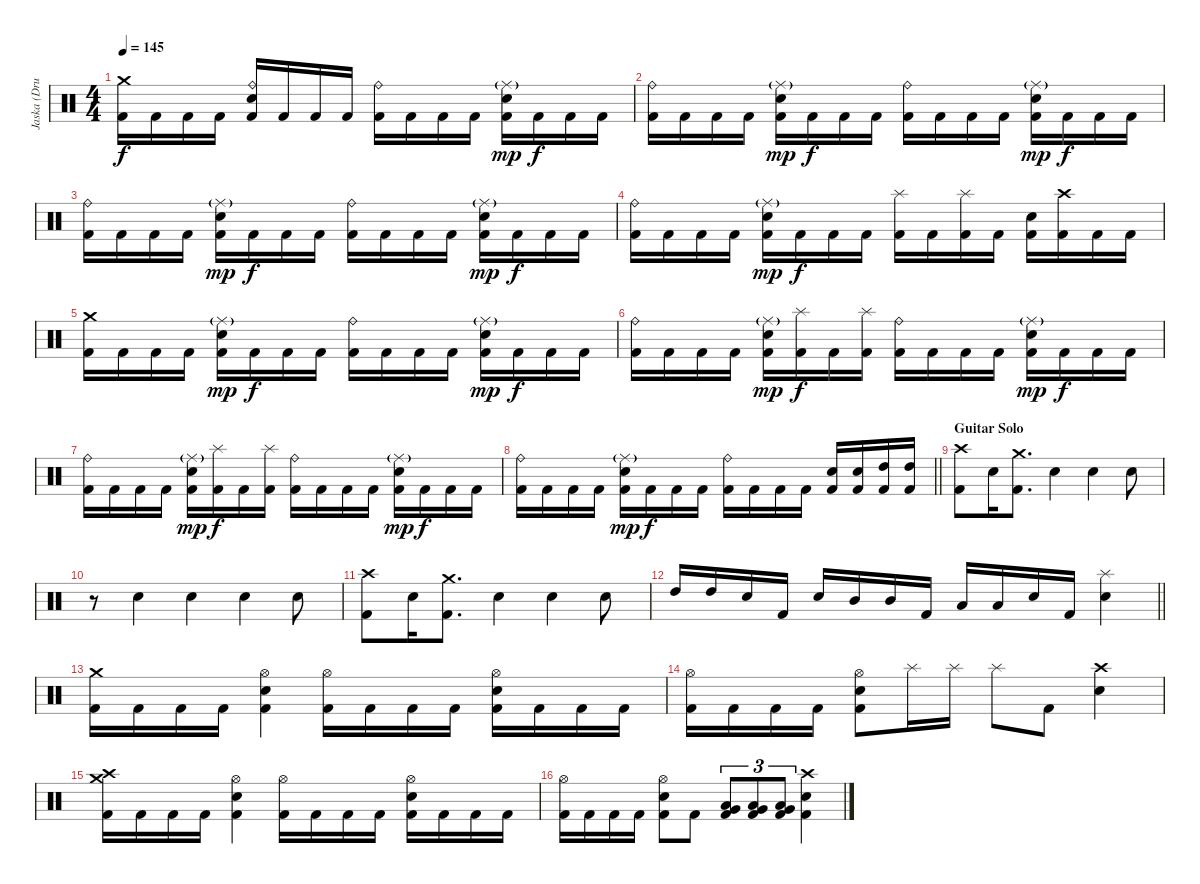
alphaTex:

\track ("Jaska (Drums)" "Jaska (Dru") {instrument percussion}
\staff {score}
\articulation defaults
\ts (4 4)
\tempo 145
\clef neutral
\ks c
("Crash medium (hit)" "Kick (hit) 2").16{dy f} "Kick (hit) 2".16 "Kick (hit) 2".16 "Kick (hit) 2".16 ("Ride (bell)" "Electric Snare (hit)" "Kick (hit) 2").16 "Kick (hit) 2".16 "Kick (hit) 2".16 "Kick (hit) 2".16 ("Ride (bell)" "Kick (hit) 2").16 "Kick (hit) 2".16 "Kick (hit) 2".16 "Kick (hit) 2".16 ("Ride (middle)"{g} "Electric Snare (hit)" "Kick (hit) 2").16{dy mp} "Kick (hit) 2".16{dy f} "Kick (hit) 2".16 "Kick (hit) 2".16 |
("Ride (bell)" "Kick (hit) 2").16 "Kick (hit) 2".16 "Kick (hit) 2".16 "Kick (hit) 2".16 ("Ride (middle)"{g} "Electric Snare (hit)" "Kick (hit) 2").16{dy mp} "Kick (hit) 2".16{dy f} "Kick (hit) 2".16 "Kick (hit) 2".16 ("Ride (bell)" "Kick (hit) 2").16 "Kick (hit) 2".16 "Kick (hit) 2".16 "Kick (hit) 2".16 ("Ride (middle)"{g} "Electric Snare (hit)" "Kick (hit) 2").16{dy mp} "Kick (hit) 2".16{dy f} "Kick (hit) 2".16 "Kick (hit) 2".16 |
("Ride (bell)" "Kick (hit) 2").16 "Kick (hit) 2".16 "Kick (hit) 2".16 "Kick (hit) 2".16 ("Ride (middle)"{g} "Electric Snare (hit)" "Kick (hit) 2").16{dy mp} "Kick (hit) 2".16{dy f} "Kick (hit) 2".16 "Kick (hit) 2".16 ("Ride (bell)" "Kick (hit) 2").16 "Kick (hit) 2".16 "Kick (hit) 2".16 "Kick (hit) 2".16 ("Ride (middle)"{g} "Electric Snare (hit)" "Kick (hit) 2").16{dy mp} "Kick (hit) 2".16{dy f} "Kick (hit) 2".16 "Kick (hit) 2".16 |
("Ride (bell)" "Kick (hit) 2").16 "Kick (hit) 2".16 "Kick (hit) 2".16 "Kick (hit) 2".16 ("Ride (middle)"{g} "Electric Snare (hit)" "Kick (hit) 2").16{dy mp} "Kick (hit) 2".16{dy f} "Kick (hit) 2".16 "Kick (hit) 2".16 ("Splash (hit)" "Kick (hit) 2").16 "Kick (hit) 2".16 ("Splash (hit)" "Kick (hit) 2").16 "Kick (hit) 2".16 ("Electric Snare (hit)" "Kick (hit) 2").16 ("Crash high (hit)" "Kick (hit) 2").16 "Kick (hit) 2".16 "Kick (hit) 2".16 |
("Crash medium (hit)" "Kick (hit) 2").16 "Kick (hit) 2".16 "Kick (hit) 2".16 "Kick (hit) 2".16 ("Ride (middle)"{g} "Electric Snare (hit)" "Kick (hit) 2").16{dy mp} "Kick (hit) 2".16{dy f} "Kick (hit) 2".16 "Kick (hit) 2".16 ("Ride (bell)" "Kick (hit) 2").16 "Kick (hit) 2".16 "Kick (hit) 2".16 "Kick (hit) 2".16 ("Ride (middle)"{g} "Electric Snare (hit)" "Kick (hit) 2").16{dy mp} "Kick (hit) 2".16{dy f} "Kick (hit) 2".16 "Kick (hit) 2".16 |
("Ride (bell)" "Kick (hit) 2").16 "Kick (hit) 2".16 "Kick (hit) 2".16 "Kick (hit) 2".16 ("Ride (middle)"{g} "Electric Snare (hit)" "Kick (hit) 2").16{dy mp} ("Splash (hit)" "Kick (hit) 2").16{dy f} "Kick (hit) 2".16 ("Splash (hit)" "Kick (hit) 2").16 ("Ride (bell)" "Kick (hit) 2").16 "Kick (hit) 2".16 "Kick (hit) 2".16 "Kick (hit) 2".16 ("Ride (middle)"{g} "Electric Snare (hit)" "Kick (hit) 2").16{dy mp} "Kick (hit) 2".16{dy f} "Kick (hit) 2".16 "Kick (hit) 2".16 |
("Ride (bell)" "Kick (hit) 2").16 "Kick (hit) 2".16 "Kick (hit) 2".16 "Kick (hit) 2".16 ("Ride (middle)"{g} "Electric Snare (hit)" "Kick (hit) 2").16{dy mp} ("Splash (hit)" "Kick (hit) 2").16{dy f} "Kick (hit) 2".16 ("Splash (hit)" "Kick (hit) 2").16 ("Ride (bell)" "Kick (hit) 2").16 "Kick (hit) 2".16 "Kick (hit) 2".16 "Kick (hit) 2".16 ("Ride (middle)"{g} "Electric Snare (hit)" "Kick (hit) 2").16{dy mp} "Kick (hit) 2".16{dy f} "Kick (hit) 2".16 "Kick (hit) 2".16 |
\barLineRight lightlight
("Ride (bell)" "Kick (hit) 2").16 "Kick (hit) 2".16 "Kick (hit) 2".16 "Kick (hit) 2".16 ("Ride (middle)"{g} "Electric Snare (hit)" "Kick (hit) 2").16{dy mp} "Kick (hit) 2".16{dy f} "Kick (hit) 2".16 "Kick (hit) 2".16 ("Ride (bell)" "Kick (hit) 2").16 "Kick (hit) 2".16 "Kick (hit) 2".16 "Kick (hit) 2".16 ("Electric Snare (hit)" "Kick (hit) 2").16 ("Electric Snare (hit)" "Kick (hit) 2").16 ("High Tom (hit)" "Kick (hit) 2").16 ("High Tom (hit)" "Kick (hit) 2").16 |
\section ("" "Guitar Solo")
("Crash high (hit)" "Kick (hit) 2").8 "Electric Snare (hit)".16 ("Crash medium (hit)" "Kick (hit) 2").8{d} "Electric Snare (hit)".4 "Electric Snare (hit)".4 "Electric Snare (hit)".8 |
r.8 "Electric Snare (hit)".4 "Electric Snare (hit)".4 "Electric Snare (hit)".4 "Electric Snare (hit)".8 |
("Crash high (hit)" "Kick (hit) 2").8 "Electric Snare (hit)".16 ("Crash medium (hit)" "Kick (hit) 2").8{d} "Electric Snare (hit)".4 "Electric Snare (hit)".4 "Electric Snare (hit)".8 |
\barLineRight lightlight "High Tom (hit)".16 "High Tom (hit)".16 "Electric Snare (hit)".16 "Kick (hit) 2".16 "Electric Snare (hit)".16 "Mid Tom (hit)".16 "Mid Tom (hit)".16 "Kick (hit) 2".16 "Low Tom (hit)".16 "Low Tom (hit)".16 "Electric Snare (hit)".16 "Kick (hit) 2".16
("Splash (hit)" "Electric Snare (hit)").4 |
("Crash medium (hit)" "Kick (hit) 2").16 "Kick (hit) 2".16 "Kick (hit) 2".16 "Kick (hit) 2".16 ("Hi-Hat (open)" "Electric Snare (hit)" "Kick (hit) 2").4 ("Hi-Hat (open)" "Kick (hit) 2").16 "Kick (hit) 2".16 "Kick (hit) 2".16 "Kick (hit) 2".16 ("Hi-Hat (open)" "Electric Snare (hit)" "Kick (hit) 2").16 "Kick (hit) 2".16 "Kick (hit) 2".16 "Kick (hit) 2".16 |
("Hi-Hat (open)" "Kick (hit) 2").16 "Kick (hit) 2".16 "Kick (hit) 2".16 "Kick (hit) 2".16 ("Hi-Hat (open)" "Electric Snare (hit)" "Kick (hit) 2").8 "Splash (hit)".16 "Splash (hit)".16 "Splash (hit)".8 "Kick (hit) 2".8 ("Crash high (hit)" "Electric Snare (hit)").4 |
("Crash medium (hit)" "Crash high (hit)" "Kick (hit) 2").16 "Kick (hit) 2".16 "Kick (hit) 2".16 "Kick (hit) 2".16 ("Hi-Hat (open)" "Electric Snare (hit)" "Kick (hit) 2").4 ("Hi-Hat (open)" "Kick (hit) 2").16 "Kick (hit) 2".16 "Kick (hit) 2".16 "Kick (hit) 2".16 ("Hi-Hat (open)" "Electric Snare (hit)" "Kick (hit) 2").16 "Kick (hit) 2".16 "Kick (hit) 2".16 "Kick (hit) 2".16 |
("Hi-Hat (open)" "Kick (hit) 2").16 "Kick (hit) 2".16 "Kick (hit) 2".16 "Kick (hit) 2".16 ("Hi-Hat (open)" "Electric Snare (hit)" "Kick (hit) 2").8 "Kick (hit) 2".8 ("Low Tom (hit)" "Very Low Tom (hit)" "Kick (hit) 2").8{tu (3 2)} ("Low Tom (hit)" "Very Low Tom (hit)" "Kick (hit) 2").8{tu (3 2)} ("Low Tom (hit)" "Very Low Tom (hit)" "Kick (hit) 2").8{tu (3 2)} ("Crash high (hit)" "Electric Snare (hit)" "Kick (hit) 2").4
